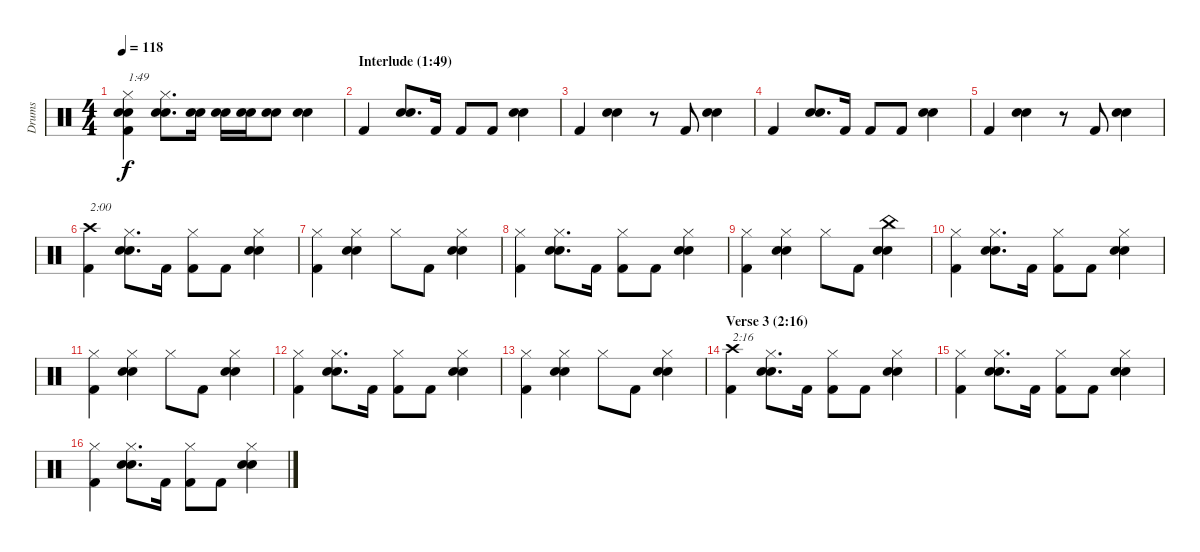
\track ("Drums" "Drums") {instrument percussion}
\staff {score}
\articulation defaults
\ts (4 4)
\tempo 118
\clef neutral
\ks c
("Hi-Hat (closed)" "Electric Snare (hit)" "Snare (hit) 2" "Kick (hit) 2").4{txt "1:49" dy f} ("Hi-Hat (closed)" "Electric Snare (hit)" "Snare (hit) 2").8{d} ("Electric Snare (hit)" "Snare (hit) 2").16 ("Electric Snare (hit)" "Snare (hit) 2").16 ("Electric Snare (hit)" "Snare (hit) 2").16 ("Electric Snare (hit)" "Snare (hit) 2").8 ("Electric Snare (hit)" "Snare (hit) 2").4 |
\section ("" "Interlude (1:49)")
"Kick (hit) 2".4 ("Electric Snare (hit)" "Snare (hit) 2").8{d} "Kick (hit) 2".16 "Kick (hit) 2".8 "Kick (hit) 2".8 ("Electric Snare (hit)" "Snare (hit) 2").4 |
"Kick (hit) 2".4 ("Electric Snare (hit)" "Snare (hit) 2").4 r.8 "Kick (hit) 2".8 ("Electric Snare (hit)" "Snare (hit) 2").4 |
"Kick (hit) 2".4 ("Electric Snare (hit)" "Snare (hit) 2").8{d} "Kick (hit) 2".16 "Kick (hit) 2".8 "Kick (hit) 2".8 ("Electric Snare (hit)" "Snare (hit) 2").4 |
"Kick (hit) 2".4 ("Electric Snare (hit)" "Snare (hit) 2").4 r.8 "Kick (hit) 2".8 ("Electric Snare (hit)" "Snare (hit) 2").4 |
("Crash high (hit)" "Kick (hit) 2").4{txt "2:00"} ("Hi-Hat (closed)" "Electric Snare (hit)" "Snare (hit) 2").8{d} "Kick (hit) 2".16 ("Hi-Hat (closed)" "Kick (hit) 2").8 "Kick (hit) 2".8 ("Hi-Hat (closed)" "Electric Snare (hit)" "Snare (hit) 2").4 |
("Hi-Hat (closed)" "Kick (hit) 2").4 ("Hi-Hat (closed)" "Electric Snare (hit)" "Snare (hit) 2").4 "Hi-Hat (closed)".8 "Kick (hit) 2".8 ("Hi-Hat (closed)" "Electric Snare (hit)" "Snare (hit) 2").4 |
("Hi-Hat (closed)" "Kick (hit) 2").4 ("Hi-Hat (closed)" "Electric Snare (hit)" "Snare (hit) 2").8{d} "Kick (hit) 2".16 ("Hi-Hat (closed)" "Kick (hit) 2").8 "Kick (hit) 2".8 ("Hi-Hat (closed)" "Electric Snare (hit)" "Snare (hit) 2").4 |
("Hi-Hat (closed)" "Kick (hit) 2").4 ("Hi-Hat (closed)" "Electric Snare (hit)" "Snare (hit) 2").4 "Hi-Hat (closed)".8 "Kick (hit) 2".8 ("China (hit)" "Electric Snare (hit)" "Snare (hit) 2").4 |
("Hi-Hat (closed)" "Kick (hit) 2").4 ("Hi-Hat (closed)" "Electric Snare (hit)" "Snare (hit) 2").8{d} "Kick (hit) 2".16 ("Hi-Hat (closed)" "Kick (hit) 2").8 "Kick (hit) 2".8 ("Hi-Hat (closed)" "Electric Snare (hit)" "Snare (hit) 2").4 |
("Hi-Hat (closed)" "Kick (hit) 2").4 ("Hi-Hat (closed)" "Electric Snare (hit)" "Snare (hit) 2").4 "Hi-Hat (closed)".8 "Kick (hit) 2".8 ("Hi-Hat (closed)" "Electric Snare (hit)" "Snare (hit) 2").4 |
("Hi-Hat (closed)" "Kick (hit) 2").4 ("Hi-Hat (closed)" "Electric Snare (hit)" "Snare (hit) 2").8{d} "Kick (hit) 2".16 ("Hi-Hat (closed)" "Kick (hit) 2").8 "Kick (hit) 2".8 ("Hi-Hat (closed)" "Electric Snare (hit)" "Snare (hit) 2").4 |
("Hi-Hat (closed)" "Kick (hit) 2").4 ("Hi-Hat (closed)" "Electric Snare (hit)" "Snare (hit) 2").4 "Hi-Hat (closed)".8 "Kick (hit) 2".8 ("Hi-Hat (closed)" "Electric Snare (hit)" "Snare (hit) 2").4 |
\section ("" "Verse 3 (2:16)")
("Crash high (hit)" "Kick (hit) 2").4{txt "2:16"} ("Hi-Hat (closed)" "Electric Snare (hit)" "Snare (hit) 2").8{d} "Kick (hit) 2".16 ("Hi-Hat (closed)" "Kick (hit) 2").8 "Kick (hit) 2".8 ("Hi-Hat (closed)" "Electric Snare (hit)" "Snare (hit) 2").4 |
("Hi-Hat (closed)" "Kick (hit) 2").4 ("Hi-Hat (closed)" "Electric Snare (hit)" "Snare (hit) 2").8{d} "Kick (hit) 2".16 ("Hi-Hat (closed)" "Kick (hit) 2").8 "Kick (hit) 2".8 ("Hi-Hat (closed)" "Electric Snare (hit)" "Snare (hit) 2").4 |
("Hi-Hat (closed)" "Kick (hit) 2").4 ("Hi-Hat (closed)" "Electric Snare (hit)" "Snare (hit) 2").8{d} "Kick (hit) 2".16 ("Hi-Hat (closed)" "Kick (hit) 2").8 "Kick (hit) 2".8 ("Hi-Hat (closed)" "Electric Snare (hit)" "Snare (hit) 2").4
